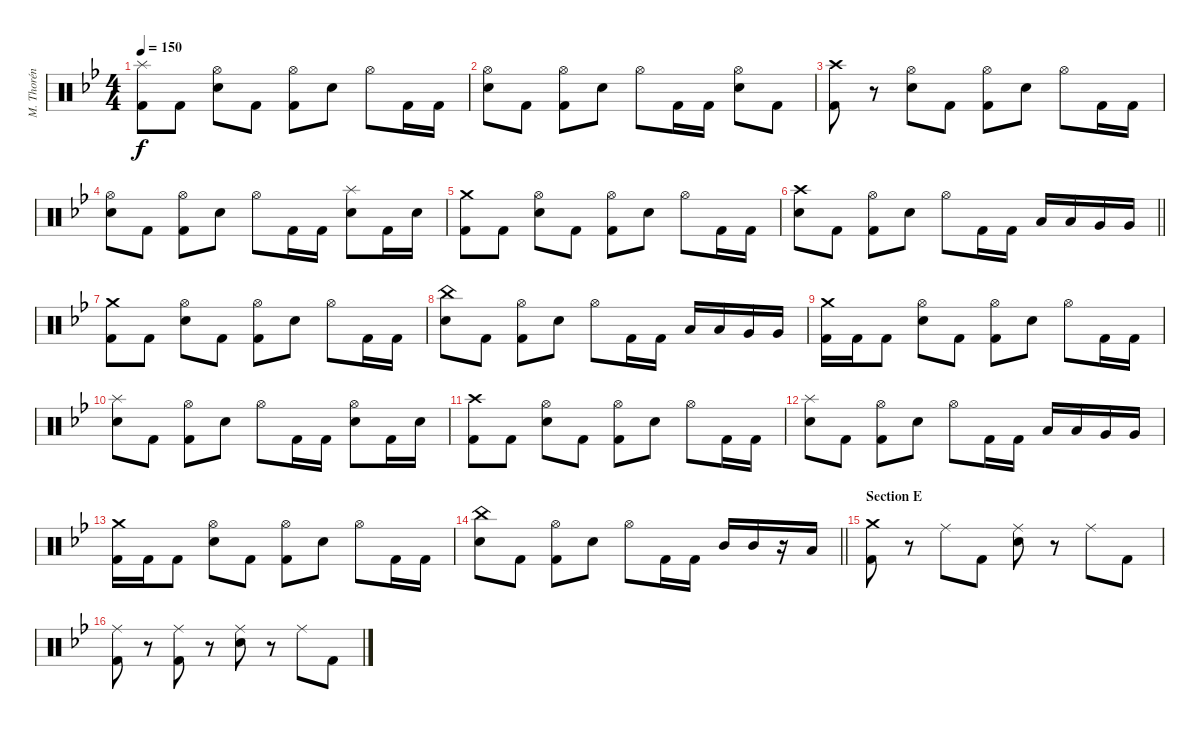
\track ("M. Thorén (Drums)" "M. Thorén ") {instrument percussion}
\staff {score}
\articulation defaults
\ts (4 4)
\tempo 150
\clef neutral
\ks gminor
("Splash (hit)" "Kick (hit) 2").8{dy f} "Kick (hit) 2".8 ("Hi-Hat (open)" "Electric Snare (hit)").8 "Kick (hit) 2".8 ("Hi-Hat (open)" "Kick (hit) 2").8 "Electric Snare (hit)".8 "Hi-Hat (open)".8 "Kick (hit) 2".16 "Kick (hit) 2".16 |
("Hi-Hat (open)" "Electric Snare (hit)").8 "Kick (hit) 2".8 ("Hi-Hat (open)" "Kick (hit) 2").8 "Electric Snare (hit)".8 "Hi-Hat (open)".8 "Kick (hit) 2".16 "Kick (hit) 2".16 ("Hi-Hat (open)" "Electric Snare (hit)").8 "Kick (hit) 2".8 |
("Crash high (hit)" "Kick (hit) 2").8 r.8 ("Hi-Hat (open)" "Electric Snare (hit)").8 "Kick (hit) 2".8 ("Hi-Hat (open)" "Kick (hit) 2").8 "Electric Snare (hit)".8 "Hi-Hat (open)".8 "Kick (hit) 2".16 "Kick (hit) 2".16 |
("Hi-Hat (open)" "Electric Snare (hit)").8 "Kick (hit) 2".8 ("Hi-Hat (open)" "Kick (hit) 2").8 "Electric Snare (hit)".8 "Hi-Hat (open)".8 "Kick (hit) 2".16 "Kick (hit) 2".16 ("Splash (hit)" "Electric Snare (hit)").8 "Kick (hit) 2".16 "Electric Snare (hit)".16 |
("Crash medium (hit)" "Kick (hit) 2").8 "Kick (hit) 2".8 ("Hi-Hat (open)" "Electric Snare (hit)").8 "Kick (hit) 2".8 ("Hi-Hat (open)" "Kick (hit) 2").8 "Electric Snare (hit)".8 "Hi-Hat (open)".8 "Kick (hit) 2".16 "Kick (hit) 2".16 |
\barLineRight lightlight
("Crash high (hit)" "Electric Snare (hit)").8 "Kick (hit) 2".8 ("Hi-Hat (open)" "Kick (hit) 2").8 "Electric Snare (hit)".8 "Hi-Hat (open)".8 "Kick (hit) 2".16 "Kick (hit) 2".16 "Low Tom (hit)".16 "Low Tom (hit)".16 "Very Low Tom (hit)".16 "Very Low Tom (hit)".16 |
("Crash medium (hit)" "Kick (hit) 2").8 "Kick (hit) 2".8 ("Hi-Hat (open)" "Electric Snare (hit)").8 "Kick (hit) 2".8 ("Hi-Hat (open)" "Kick (hit) 2").8 "Electric Snare (hit)".8 "Hi-Hat (open)".8 "Kick (hit) 2".16 "Kick (hit) 2".16 |
("China (hit)" "Electric Snare (hit)").8 "Kick (hit) 2".8 ("Hi-Hat (open)" "Kick (hit) 2").8 "Electric Snare (hit)".8 "Hi-Hat (open)".8 "Kick (hit) 2".16 "Kick (hit) 2".16 "Low Tom (hit)".16 "Low Tom (hit)".16 "Very Low Tom (hit)".16 "Very Low Tom (hit)".16 |
("Crash medium (hit)" "Kick (hit) 2").16 "Kick (hit) 2".16 "Kick (hit) 2".8 ("Hi-Hat (open)" "Electric Snare (hit)").8 "Kick (hit) 2".8 ("Hi-Hat (open)" "Kick (hit) 2").8 "Electric Snare (hit)".8 "Hi-Hat (open)".8 "Kick (hit) 2".16 "Kick (hit) 2".16 |
("Splash (hit)" "Electric Snare (hit)").8 "Kick (hit) 2".8 ("Hi-Hat (open)" "Kick (hit) 2").8 "Electric Snare (hit)".8 "Hi-Hat (open)".8 "Kick (hit) 2".16 "Kick (hit) 2".16 ("Hi-Hat (open)" "Electric Snare (hit)").8 "Kick (hit) 2".16 "Electric Snare (hit)".16 |
("Crash high (hit)" "Kick (hit) 2").8 "Kick (hit) 2".8 ("Hi-Hat (open)" "Electric Snare (hit)").8 "Kick (hit) 2".8 ("Hi-Hat (open)" "Kick (hit) 2").8 "Electric Snare (hit)".8 "Hi-Hat (open)".8 "Kick (hit) 2".16 "Kick (hit) 2".16 |
("Splash (hit)" "Electric Snare (hit)").8 "Kick (hit) 2".8 ("Hi-Hat (open)" "Kick (hit) 2").8 "Electric Snare (hit)".8 "Hi-Hat (open)".8 "Kick (hit) 2".16 "Kick (hit) 2".16 "Low Tom (hit)".16 "Low Tom (hit)".16 "Very Low Tom (hit)".16 "Very Low Tom (hit)".16 |
("Crash medium (hit)" "Kick (hit) 2").16 "Kick (hit) 2".16 "Kick (hit) 2".8 ("Hi-Hat (open)" "Electric Snare (hit)").8 "Kick (hit) 2".8 ("Hi-Hat (open)" "Kick (hit) 2").8 "Electric Snare (hit)".8 "Hi-Hat (open)".8 "Kick (hit) 2".16 "Kick (hit) 2".16 |
\barLineRight lightlight
("China (hit)" "Electric Snare (hit)").8 "Kick (hit) 2".8 ("Hi-Hat (open)" "Kick (hit) 2").8 "Electric Snare (hit)".8 "Hi-Hat (open)".8 "Kick (hit) 2".16 "Kick (hit) 2".16 "Mid Tom (hit)".16 "Mid Tom (hit)".16 r.16 "Low Tom (hit)".16 |
\section ("" "Section E")
("Crash medium (hit)" "Kick (hit) 2").8 r.8 "Ride (middle)".8 "Kick (hit) 2".8 ("Ride (middle)" "Electric Snare (hit)").8 r.8 "Ride (middle)".8 "Kick (hit) 2".8 |
("Ride (middle)" "Kick (hit) 2").8 r.8 ("Ride (middle)" "Kick (hit) 2").8 r.8 ("Ride (middle)" "Electric Snare (hit)").8 r.8 "Ride (middle)".8 "Kick (hit) 2".8
